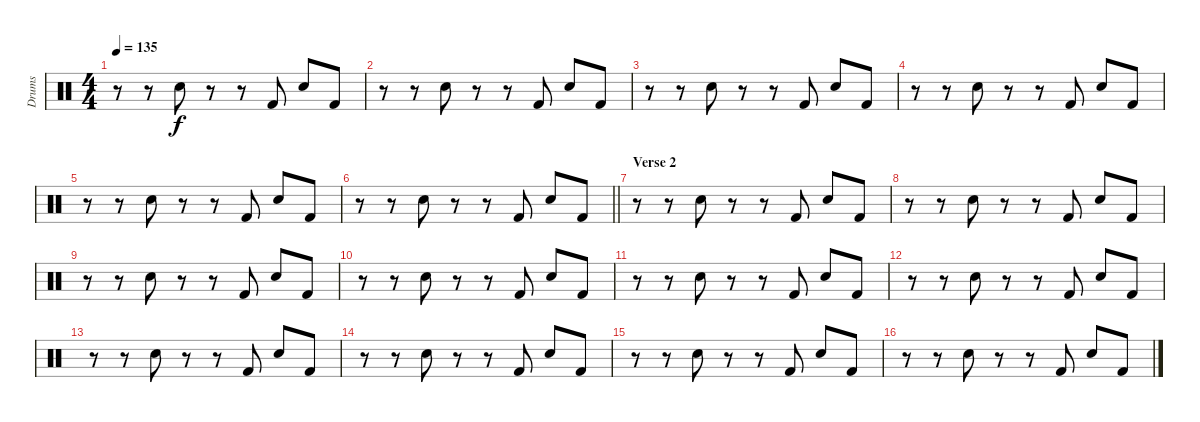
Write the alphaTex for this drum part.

\track ("Drums" "Drums") {instrument percussion}
\staff {score}
\articulation defaults
\ts (4 4)
\tempo 135
\clef neutral
\ks c
r.8{dy f} r.8 "Snare (hit) 2".8 r.8 r.8 "Kick (hit) 2".8 "Snare (hit) 2".8 "Kick (hit) 2".8 |
r.8 r.8 "Snare (hit) 2".8 r.8 r.8 "Kick (hit) 2".8 "Snare (hit) 2".8 "Kick (hit) 2".8 |
r.8 r.8 "Snare (hit) 2".8 r.8 r.8 "Kick (hit) 2".8 "Snare (hit) 2".8 "Kick (hit) 2".8 |
r.8 r.8 "Snare (hit) 2".8 r.8 r.8 "Kick (hit) 2".8 "Snare (hit) 2".8 "Kick (hit) 2".8 |
r.8 r.8 "Snare (hit) 2".8 r.8 r.8 "Kick (hit) 2".8 "Snare (hit) 2".8 "Kick (hit) 2".8 |
\barLineRight lightlight
r.8 r.8 "Snare (hit) 2".8 r.8 r.8 "Kick (hit) 2".8 "Snare (hit) 2".8 "Kick (hit) 2".8 |
\section ("" "Verse 2")
r.8 r.8 "Snare (hit) 2".8 r.8 r.8 "Kick (hit) 2".8 "Snare (hit) 2".8 "Kick (hit) 2".8 |
r.8 r.8 "Snare (hit) 2".8 r.8 r.8 "Kick (hit) 2".8 "Snare (hit) 2".8 "Kick (hit) 2".8 |
r.8 r.8 "Snare (hit) 2".8 r.8 r.8 "Kick (hit) 2".8 "Snare (hit) 2".8 "Kick (hit) 2".8 |
r.8 r.8 "Snare (hit) 2".8 r.8 r.8 "Kick (hit) 2".8 "Snare (hit) 2".8 "Kick (hit) 2".8 |
r.8 r.8 "Snare (hit) 2".8 r.8 r.8 "Kick (hit) 2".8 "Snare (hit) 2".8 "Kick (hit) 2".8 |
r.8 r.8 "Snare (hit) 2".8 r.8 r.8 "Kick (hit) 2".8 "Snare (hit) 2".8 "Kick (hit) 2".8 |
r.8 r.8 "Snare (hit) 2".8 r.8 r.8 "Kick (hit) 2".8 "Snare (hit) 2".8 "Kick (hit) 2".8 |
r.8 r.8 "Snare (hit) 2".8 r.8 r.8 "Kick (hit) 2".8 "Snare (hit) 2".8 "Kick (hit) 2".8 |
r.8 r.8 "Snare (hit) 2".8 r.8 r.8 "Kick (hit) 2".8 "Snare (hit) 2".8 "Kick (hit) 2".8 |
r.8 r.8 "Snare (hit) 2".8 r.8 r.8 "Kick (hit) 2".8 "Snare (hit) 2".8 "Kick (hit) 2".8
